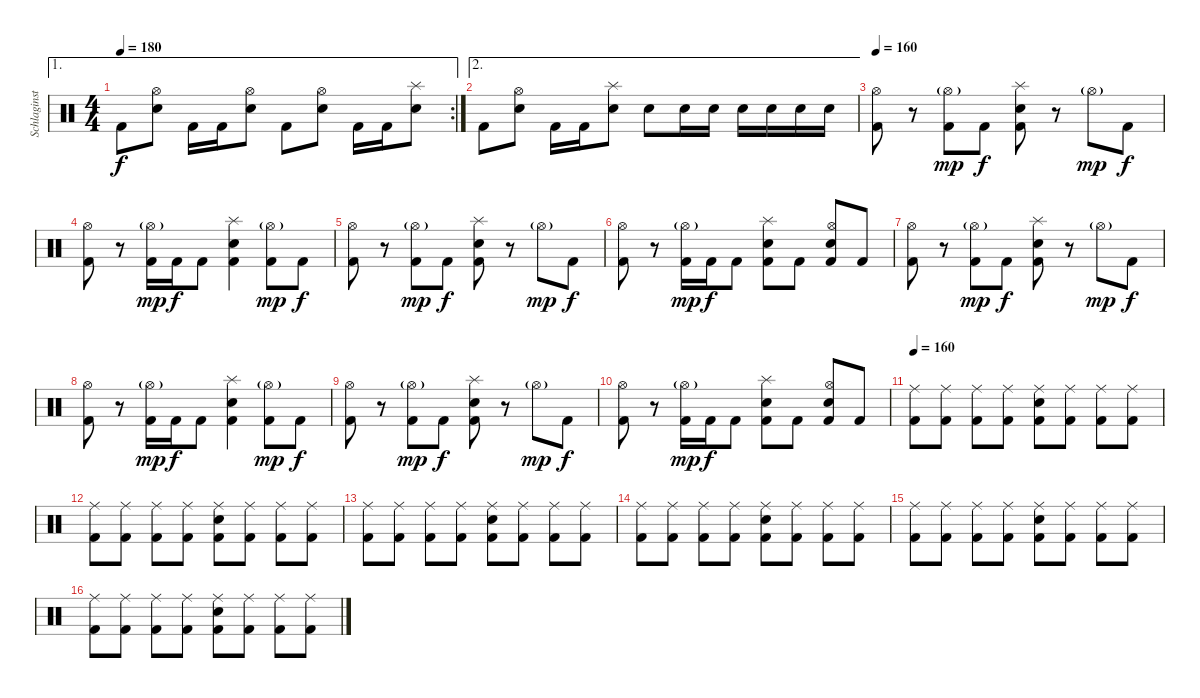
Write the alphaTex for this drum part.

\track ("Schlaginstrumente - Auswahl" "Schlaginst") {instrument percussion}
\staff {score}
\articulation defaults
\ae 1
\rc 2
\ts (4 4)
\tempo 180
\clef neutral
\ks c "Kick (hit) 2".8{dy f}
("Hi-Hat (open)" "Snare (hit) 2").8 "Kick (hit) 2".16 "Kick (hit) 2".16 ("Hi-Hat (open)" "Snare (hit) 2").8 "Kick (hit) 2".8 ("Hi-Hat (open)" "Snare (hit) 2").8 "Kick (hit) 2".16 "Kick (hit) 2".16 ("Splash (hit)" "Snare (hit) 2").8 |
\ae 2 "Kick (hit) 2".8
("Hi-Hat (open)" "Snare (hit) 2").8 "Kick (hit) 2".16 "Kick (hit) 2".16 ("Splash (hit)" "Snare (hit) 2").8 "Snare (hit) 2".8 "Snare (hit) 2".16 "Snare (hit) 2".16 "Snare (hit) 2".16 "Snare (hit) 2".16 "Snare (hit) 2".16 "Snare (hit) 2".16 |
\tempo 160
("Hi-Hat (open)" "Kick (hit) 2").8 r.8 ("Hi-Hat (open)"{g} "Kick (hit) 2").8{dy mp} "Kick (hit) 2".8{dy f} ("Splash (hit)" "Snare (hit) 2" "Kick (hit) 2").8 r.8 "Hi-Hat (open)"{g}.8{dy mp} "Kick (hit) 2".8{dy f} |
("Hi-Hat (open)" "Kick (hit) 2").8 r.8 ("Hi-Hat (open)"{g} "Kick (hit) 2").16{dy mp} "Kick (hit) 2".16{dy f} "Kick (hit) 2".8 ("Splash (hit)" "Snare (hit) 2" "Kick (hit) 2").4 ("Hi-Hat (open)"{g} "Kick (hit) 2").8{dy mp} "Kick (hit) 2".8{dy f} |
("Hi-Hat (open)" "Kick (hit) 2").8 r.8 ("Hi-Hat (open)"{g} "Kick (hit) 2").8{dy mp} "Kick (hit) 2".8{dy f} ("Splash (hit)" "Snare (hit) 2" "Kick (hit) 2").8 r.8 "Hi-Hat (open)"{g}.8{dy mp} "Kick (hit) 2".8{dy f} |
("Hi-Hat (open)" "Kick (hit) 2").8 r.8 ("Hi-Hat (open)"{g} "Kick (hit) 2").16{dy mp} "Kick (hit) 2".16{dy f} "Kick (hit) 2".8 ("Splash (hit)" "Snare (hit) 2" "Kick (hit) 2").8 "Kick (hit) 2".8 ("Hi-Hat (open)" "Snare (hit) 2" "Kick (hit) 2").8 "Kick (hit) 2".8 |
("Hi-Hat (open)" "Kick (hit) 2").8 r.8 ("Hi-Hat (open)"{g} "Kick (hit) 2").8{dy mp} "Kick (hit) 2".8{dy f} ("Splash (hit)" "Snare (hit) 2" "Kick (hit) 2").8 r.8 "Hi-Hat (open)"{g}.8{dy mp} "Kick (hit) 2".8{dy f} |
("Hi-Hat (open)" "Kick (hit) 2").8 r.8 ("Hi-Hat (open)"{g} "Kick (hit) 2").16{dy mp} "Kick (hit) 2".16{dy f} "Kick (hit) 2".8 ("Splash (hit)" "Snare (hit) 2" "Kick (hit) 2").4 ("Hi-Hat (open)"{g} "Kick (hit) 2").8{dy mp} "Kick (hit) 2".8{dy f} |
("Hi-Hat (open)" "Kick (hit) 2").8 r.8 ("Hi-Hat (open)"{g} "Kick (hit) 2").8{dy mp} "Kick (hit) 2".8{dy f} ("Splash (hit)" "Snare (hit) 2" "Kick (hit) 2").8 r.8 "Hi-Hat (open)"{g}.8{dy mp} "Kick (hit) 2".8{dy f} |
("Hi-Hat (open)" "Kick (hit) 2").8 r.8 ("Hi-Hat (open)"{g} "Kick (hit) 2").16{dy mp} "Kick (hit) 2".16{dy f} "Kick (hit) 2".8 ("Splash (hit)" "Snare (hit) 2" "Kick (hit) 2").8 "Kick (hit) 2".8 ("Hi-Hat (open)" "Snare (hit) 2" "Kick (hit) 2").8 "Kick (hit) 2".8 |
\tempo 160
("Ride (middle)" "Kick (hit) 2").8 ("Ride (middle)" "Kick (hit) 2").8 ("Ride (middle)" "Kick (hit) 2").8 ("Ride (middle)" "Kick (hit) 2").8 ("Ride (middle)" "Snare (hit) 2" "Kick (hit) 2").8 ("Ride (middle)" "Kick (hit) 2").8 ("Ride (middle)" "Kick (hit) 2").8 ("Ride (middle)" "Kick (hit) 2").8 |
("Ride (middle)" "Kick (hit) 2").8 ("Ride (middle)" "Kick (hit) 2").8 ("Ride (middle)" "Kick (hit) 2").8 ("Ride (middle)" "Kick (hit) 2").8 ("Ride (middle)" "Snare (hit) 2" "Kick (hit) 2").8 ("Ride (middle)" "Kick (hit) 2").8 ("Ride (middle)" "Kick (hit) 2").8 ("Ride (middle)" "Kick (hit) 2").8 |
("Ride (middle)" "Kick (hit) 2").8 ("Ride (middle)" "Kick (hit) 2").8 ("Ride (middle)" "Kick (hit) 2").8 ("Ride (middle)" "Kick (hit) 2").8 ("Ride (middle)" "Snare (hit) 2" "Kick (hit) 2").8 ("Ride (middle)" "Kick (hit) 2").8 ("Ride (middle)" "Kick (hit) 2").8 ("Ride (middle)" "Kick (hit) 2").8 |
("Ride (middle)" "Kick (hit) 2").8 ("Ride (middle)" "Kick (hit) 2").8 ("Ride (middle)" "Kick (hit) 2").8 ("Ride (middle)" "Kick (hit) 2").8 ("Ride (middle)" "Snare (hit) 2" "Kick (hit) 2").8 ("Ride (middle)" "Kick (hit) 2").8 ("Ride (middle)" "Kick (hit) 2").8 ("Ride (middle)" "Kick (hit) 2").8 |
("Ride (middle)" "Kick (hit) 2").8 ("Ride (middle)" "Kick (hit) 2").8 ("Ride (middle)" "Kick (hit) 2").8 ("Ride (middle)" "Kick (hit) 2").8 ("Ride (middle)" "Snare (hit) 2" "Kick (hit) 2").8 ("Ride (middle)" "Kick (hit) 2").8 ("Ride (middle)" "Kick (hit) 2").8 ("Ride (middle)" "Kick (hit) 2").8 |
("Ride (middle)" "Kick (hit) 2").8 ("Ride (middle)" "Kick (hit) 2").8 ("Ride (middle)" "Kick (hit) 2").8 ("Ride (middle)" "Kick (hit) 2").8 ("Ride (middle)" "Snare (hit) 2" "Kick (hit) 2").8 ("Ride (middle)" "Kick (hit) 2").8 ("Ride (middle)" "Kick (hit) 2").8 ("Ride (middle)" "Kick (hit) 2").8
